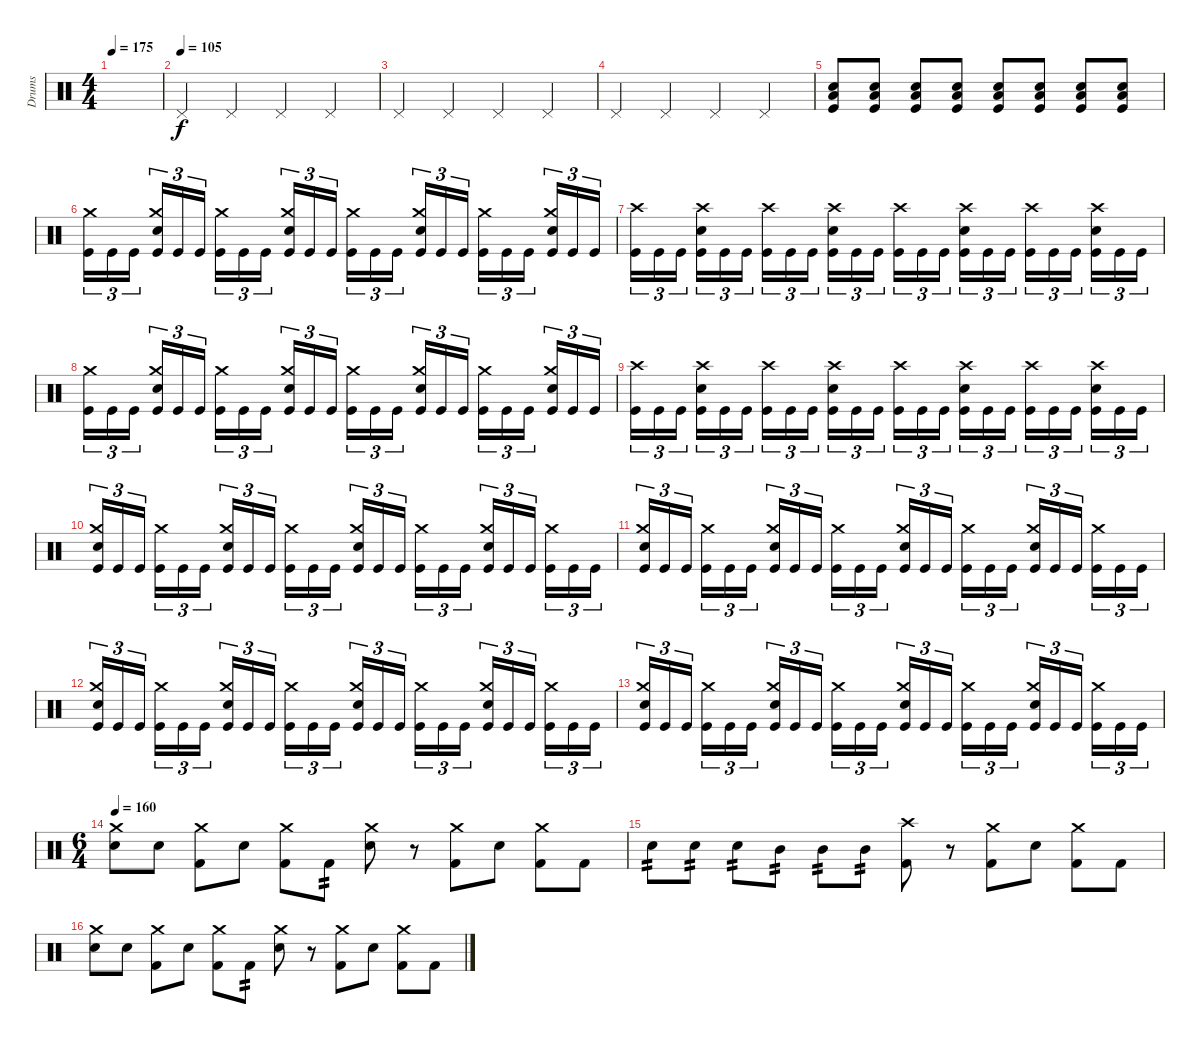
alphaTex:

\track ("Drums" "Drums") {instrument percussion}
\staff {score}
\articulation defaults
\ts (4 4)
\tempo 175
\clef neutral
\ks c
|
\tempo (105)
"Pedal Hi-Hat (hit)".4 "Pedal Hi-Hat (hit)".4 "Pedal Hi-Hat (hit)".4 "Pedal Hi-Hat (hit)".4 |
"Pedal Hi-Hat (hit)".4 "Pedal Hi-Hat (hit)".4 "Pedal Hi-Hat (hit)".4 "Pedal Hi-Hat (hit)".4 |
"Pedal Hi-Hat (hit)".4 "Pedal Hi-Hat (hit)".4 "Pedal Hi-Hat (hit)".4 "Pedal Hi-Hat (hit)".4 |
("Low Tom (hit)" "Snare (hit) 2" "Kick (hit)").8 ("Low Tom (hit)" "Snare (hit) 2" "Kick (hit)").8 ("Low Tom (hit)" "Snare (hit) 2" "Kick (hit)").8 ("Low Tom (hit)" "Snare (hit) 2" "Kick (hit)").8 ("Low Tom (hit)" "Snare (hit) 2" "Kick (hit)").8 ("Low Tom (hit)" "Snare (hit) 2" "Kick (hit)").8 ("Low Tom (hit)" "Snare (hit) 2" "Kick (hit)").8 ("Low Tom (hit)" "Snare (hit) 2" "Kick (hit)").8 |
("Crash medium (hit)" "Kick (hit)").16{tu (3 2)} "Kick (hit)".16{tu (3 2)} "Kick (hit)".16{tu (3 2)} ("Crash medium (hit)" "Electric Snare (hit)" "Kick (hit)").16{tu (3 2)} "Kick (hit)".16{tu (3 2)} "Kick (hit)".16{tu (3 2)} ("Crash medium (hit)" "Kick (hit)").16{tu (3 2)} "Kick (hit)".16{tu (3 2)} "Kick (hit)".16{tu (3 2)} ("Crash medium (hit)" "Electric Snare (hit)" "Kick (hit)").16{tu (3 2)} "Kick (hit)".16{tu (3 2)} "Kick (hit)".16{tu (3 2)} ("Crash medium (hit)" "Kick (hit)").16{tu (3 2)} "Kick (hit)".16{tu (3 2)} "Kick (hit)".16{tu (3 2)} ("Crash medium (hit)" "Electric Snare (hit)" "Kick (hit)").16{tu (3 2)} "Kick (hit)".16{tu (3 2)} "Kick (hit)".16{tu (3 2)} ("Crash medium (hit)" "Kick (hit)").16{tu (3 2)} "Kick (hit)".16{tu (3 2)} "Kick (hit)".16{tu (3 2)} ("Crash medium (hit)" "Electric Snare (hit)" "Kick (hit)").16{tu (3 2)} "Kick (hit)".16{tu (3 2)} "Kick (hit)".16{tu (3 2)} |
("Crash high (hit)" "Kick (hit)").16{tu (3 2)} "Kick (hit)".16{tu (3 2)} "Kick (hit)".16{tu (3 2)} ("Crash high (hit)" "Electric Snare (hit)" "Kick (hit)").16{tu (3 2)} "Kick (hit)".16{tu (3 2)} "Kick (hit)".16{tu (3 2)} ("Crash high (hit)" "Kick (hit)").16{tu (3 2)} "Kick (hit)".16{tu (3 2)} "Kick (hit)".16{tu (3 2)} ("Crash high (hit)" "Electric Snare (hit)" "Kick (hit)").16{tu (3 2)} "Kick (hit)".16{tu (3 2)} "Kick (hit)".16{tu (3 2)} ("Crash high (hit)" "Kick (hit)").16{tu (3 2)} "Kick (hit)".16{tu (3 2)} "Kick (hit)".16{tu (3 2)} ("Crash high (hit)" "Electric Snare (hit)" "Kick (hit)").16{tu (3 2)} "Kick (hit)".16{tu (3 2)} "Kick (hit)".16{tu (3 2)} ("Crash high (hit)" "Kick (hit)").16{tu (3 2)} "Kick (hit)".16{tu (3 2)} "Kick (hit)".16{tu (3 2)} ("Crash high (hit)" "Electric Snare (hit)" "Kick (hit)").16{tu (3 2)} "Kick (hit)".16{tu (3 2)} "Kick (hit)".16{tu (3 2)} |
("Crash medium (hit)" "Kick (hit)").16{tu (3 2)} "Kick (hit)".16{tu (3 2)} "Kick (hit)".16{tu (3 2)} ("Crash medium (hit)" "Electric Snare (hit)" "Kick (hit)").16{tu (3 2)} "Kick (hit)".16{tu (3 2)} "Kick (hit)".16{tu (3 2)} ("Crash medium (hit)" "Kick (hit)").16{tu (3 2)} "Kick (hit)".16{tu (3 2)} "Kick (hit)".16{tu (3 2)} ("Crash medium (hit)" "Electric Snare (hit)" "Kick (hit)").16{tu (3 2)} "Kick (hit)".16{tu (3 2)} "Kick (hit)".16{tu (3 2)} ("Crash medium (hit)" "Kick (hit)").16{tu (3 2)} "Kick (hit)".16{tu (3 2)} "Kick (hit)".16{tu (3 2)} ("Crash medium (hit)" "Electric Snare (hit)" "Kick (hit)").16{tu (3 2)} "Kick (hit)".16{tu (3 2)} "Kick (hit)".16{tu (3 2)} ("Crash medium (hit)" "Kick (hit)").16{tu (3 2)} "Kick (hit)".16{tu (3 2)} "Kick (hit)".16{tu (3 2)} ("Crash medium (hit)" "Electric Snare (hit)" "Kick (hit)").16{tu (3 2)} "Kick (hit)".16{tu (3 2)} "Kick (hit)".16{tu (3 2)} |
("Crash high (hit)" "Kick (hit)").16{tu (3 2)} "Kick (hit)".16{tu (3 2)} "Kick (hit)".16{tu (3 2)} ("Crash high (hit)" "Electric Snare (hit)" "Kick (hit)").16{tu (3 2)} "Kick (hit)".16{tu (3 2)} "Kick (hit)".16{tu (3 2)} ("Crash high (hit)" "Kick (hit)").16{tu (3 2)} "Kick (hit)".16{tu (3 2)} "Kick (hit)".16{tu (3 2)} ("Crash high (hit)" "Electric Snare (hit)" "Kick (hit)").16{tu (3 2)} "Kick (hit)".16{tu (3 2)} "Kick (hit)".16{tu (3 2)} ("Crash high (hit)" "Kick (hit)").16{tu (3 2)} "Kick (hit)".16{tu (3 2)} "Kick (hit)".16{tu (3 2)} ("Crash high (hit)" "Electric Snare (hit)" "Kick (hit)").16{tu (3 2)} "Kick (hit)".16{tu (3 2)} "Kick (hit)".16{tu (3 2)} ("Crash high (hit)" "Kick (hit)").16{tu (3 2)} "Kick (hit)".16{tu (3 2)} "Kick (hit)".16{tu (3 2)} ("Crash high (hit)" "Electric Snare (hit)" "Kick (hit)").16{tu (3 2)} "Kick (hit)".16{tu (3 2)} "Kick (hit)".16{tu (3 2)} |
("Crash medium (hit)" "Electric Snare (hit)" "Kick (hit)").16{tu (3 2)} "Kick (hit)".16{tu (3 2)} "Kick (hit)".16{tu (3 2)} ("Crash medium (hit)" "Kick (hit)").16{tu (3 2)} "Kick (hit)".16{tu (3 2)} "Kick (hit)".16{tu (3 2)} ("Crash medium (hit)" "Electric Snare (hit)" "Kick (hit)").16{tu (3 2)} "Kick (hit)".16{tu (3 2)} "Kick (hit)".16{tu (3 2)} ("Crash medium (hit)" "Kick (hit)").16{tu (3 2)} "Kick (hit)".16{tu (3 2)} "Kick (hit)".16{tu (3 2)} ("Crash medium (hit)" "Electric Snare (hit)" "Kick (hit)").16{tu (3 2)} "Kick (hit)".16{tu (3 2)} "Kick (hit)".16{tu (3 2)} ("Crash medium (hit)" "Kick (hit)").16{tu (3 2)} "Kick (hit)".16{tu (3 2)} "Kick (hit)".16{tu (3 2)} ("Crash medium (hit)" "Electric Snare (hit)" "Kick (hit)").16{tu (3 2)} "Kick (hit)".16{tu (3 2)} "Kick (hit)".16{tu (3 2)} ("Crash medium (hit)" "Kick (hit)").16{tu (3 2)} "Kick (hit)".16{tu (3 2)} "Kick (hit)".16{tu (3 2)} |
("Crash medium (hit)" "Electric Snare (hit)" "Kick (hit)").16{tu (3 2)} "Kick (hit)".16{tu (3 2)} "Kick (hit)".16{tu (3 2)} ("Crash medium (hit)" "Kick (hit)").16{tu (3 2)} "Kick (hit)".16{tu (3 2)} "Kick (hit)".16{tu (3 2)} ("Crash medium (hit)" "Electric Snare (hit)" "Kick (hit)").16{tu (3 2)} "Kick (hit)".16{tu (3 2)} "Kick (hit)".16{tu (3 2)} ("Crash medium (hit)" "Kick (hit)").16{tu (3 2)} "Kick (hit)".16{tu (3 2)} "Kick (hit)".16{tu (3 2)} ("Crash medium (hit)" "Electric Snare (hit)" "Kick (hit)").16{tu (3 2)} "Kick (hit)".16{tu (3 2)} "Kick (hit)".16{tu (3 2)} ("Crash medium (hit)" "Kick (hit)").16{tu (3 2)} "Kick (hit)".16{tu (3 2)} "Kick (hit)".16{tu (3 2)} ("Crash medium (hit)" "Electric Snare (hit)" "Kick (hit)").16{tu (3 2)} "Kick (hit)".16{tu (3 2)} "Kick (hit)".16{tu (3 2)} ("Crash medium (hit)" "Kick (hit)").16{tu (3 2)} "Kick (hit)".16{tu (3 2)} "Kick (hit)".16{tu (3 2)} |
("Crash medium (hit)" "Electric Snare (hit)" "Kick (hit)").16{tu (3 2)} "Kick (hit)".16{tu (3 2)} "Kick (hit)".16{tu (3 2)} ("Crash medium (hit)" "Kick (hit)").16{tu (3 2)} "Kick (hit)".16{tu (3 2)} "Kick (hit)".16{tu (3 2)} ("Crash medium (hit)" "Electric Snare (hit)" "Kick (hit)").16{tu (3 2)} "Kick (hit)".16{tu (3 2)} "Kick (hit)".16{tu (3 2)} ("Crash medium (hit)" "Kick (hit)").16{tu (3 2)} "Kick (hit)".16{tu (3 2)} "Kick (hit)".16{tu (3 2)} ("Crash medium (hit)" "Electric Snare (hit)" "Kick (hit)").16{tu (3 2)} "Kick (hit)".16{tu (3 2)} "Kick (hit)".16{tu (3 2)} ("Crash medium (hit)" "Kick (hit)").16{tu (3 2)} "Kick (hit)".16{tu (3 2)} "Kick (hit)".16{tu (3 2)} ("Crash medium (hit)" "Electric Snare (hit)" "Kick (hit)").16{tu (3 2)} "Kick (hit)".16{tu (3 2)} "Kick (hit)".16{tu (3 2)} ("Crash medium (hit)" "Kick (hit)").16{tu (3 2)} "Kick (hit)".16{tu (3 2)} "Kick (hit)".16{tu (3 2)} |
("Crash medium (hit)" "Electric Snare (hit)" "Kick (hit)").16{tu (3 2)} "Kick (hit)".16{tu (3 2)} "Kick (hit)".16{tu (3 2)} ("Crash medium (hit)" "Kick (hit)").16{tu (3 2)} "Kick (hit)".16{tu (3 2)} "Kick (hit)".16{tu (3 2)} ("Crash medium (hit)" "Electric Snare (hit)" "Kick (hit)").16{tu (3 2)} "Kick (hit)".16{tu (3 2)} "Kick (hit)".16{tu (3 2)} ("Crash medium (hit)" "Kick (hit)").16{tu (3 2)} "Kick (hit)".16{tu (3 2)} "Kick (hit)".16{tu (3 2)} ("Crash medium (hit)" "Electric Snare (hit)" "Kick (hit)").16{tu (3 2)} "Kick (hit)".16{tu (3 2)} "Kick (hit)".16{tu (3 2)} ("Crash medium (hit)" "Kick (hit)").16{tu (3 2)} "Kick (hit)".16{tu (3 2)} "Kick (hit)".16{tu (3 2)} ("Crash medium (hit)" "Electric Snare (hit)" "Kick (hit)").16{tu (3 2)} "Kick (hit)".16{tu (3 2)} "Kick (hit)".16{tu (3 2)} ("Crash medium (hit)" "Kick (hit)").16{tu (3 2)} "Kick (hit)".16{tu (3 2)} "Kick (hit)".16{tu (3 2)} |
\ts (6 4)
\tempo 160
("Crash medium (hit)" "Electric Snare (hit)").8 "Electric Snare (hit)".8 ("Crash medium (hit)" "Kick (hit) 2").8 "Electric Snare (hit)".8 ("Crash medium (hit)" "Kick (hit) 2").8 "Kick (hit) 2".8{tp 2} ("Crash medium (hit)" "Electric Snare (hit)").8 r.8 ("Crash medium (hit)" "Kick (hit) 2").8 "Electric Snare (hit)".8 ("Crash medium (hit)" "Kick (hit) 2").8 "Kick (hit) 2".8 |
"Electric Snare (hit)".8{tp 2} "Electric Snare (hit)".8{tp 2} "Electric Snare (hit)".8{tp 2} "Mid Tom (hit)".8{tp 2} "Mid Tom (hit)".8{tp 2} "Mid Tom (hit)".8{tp 2} ("Crash high (hit)" "Kick (hit) 2").8 r.8 ("Crash medium (hit)" "Kick (hit) 2").8 "Electric Snare (hit)".8 ("Crash medium (hit)" "Kick (hit) 2").8 "Kick (hit) 2".8 |
("Crash medium (hit)" "Electric Snare (hit)").8 "Electric Snare (hit)".8 ("Crash medium (hit)" "Kick (hit) 2").8 "Electric Snare (hit)".8 ("Crash medium (hit)" "Kick (hit) 2").8 "Kick (hit) 2".8{tp 2} ("Crash medium (hit)" "Electric Snare (hit)").8 r.8 ("Crash medium (hit)" "Kick (hit) 2").8 "Electric Snare (hit)".8 ("Crash medium (hit)" "Kick (hit) 2").8 "Kick (hit) 2".8
